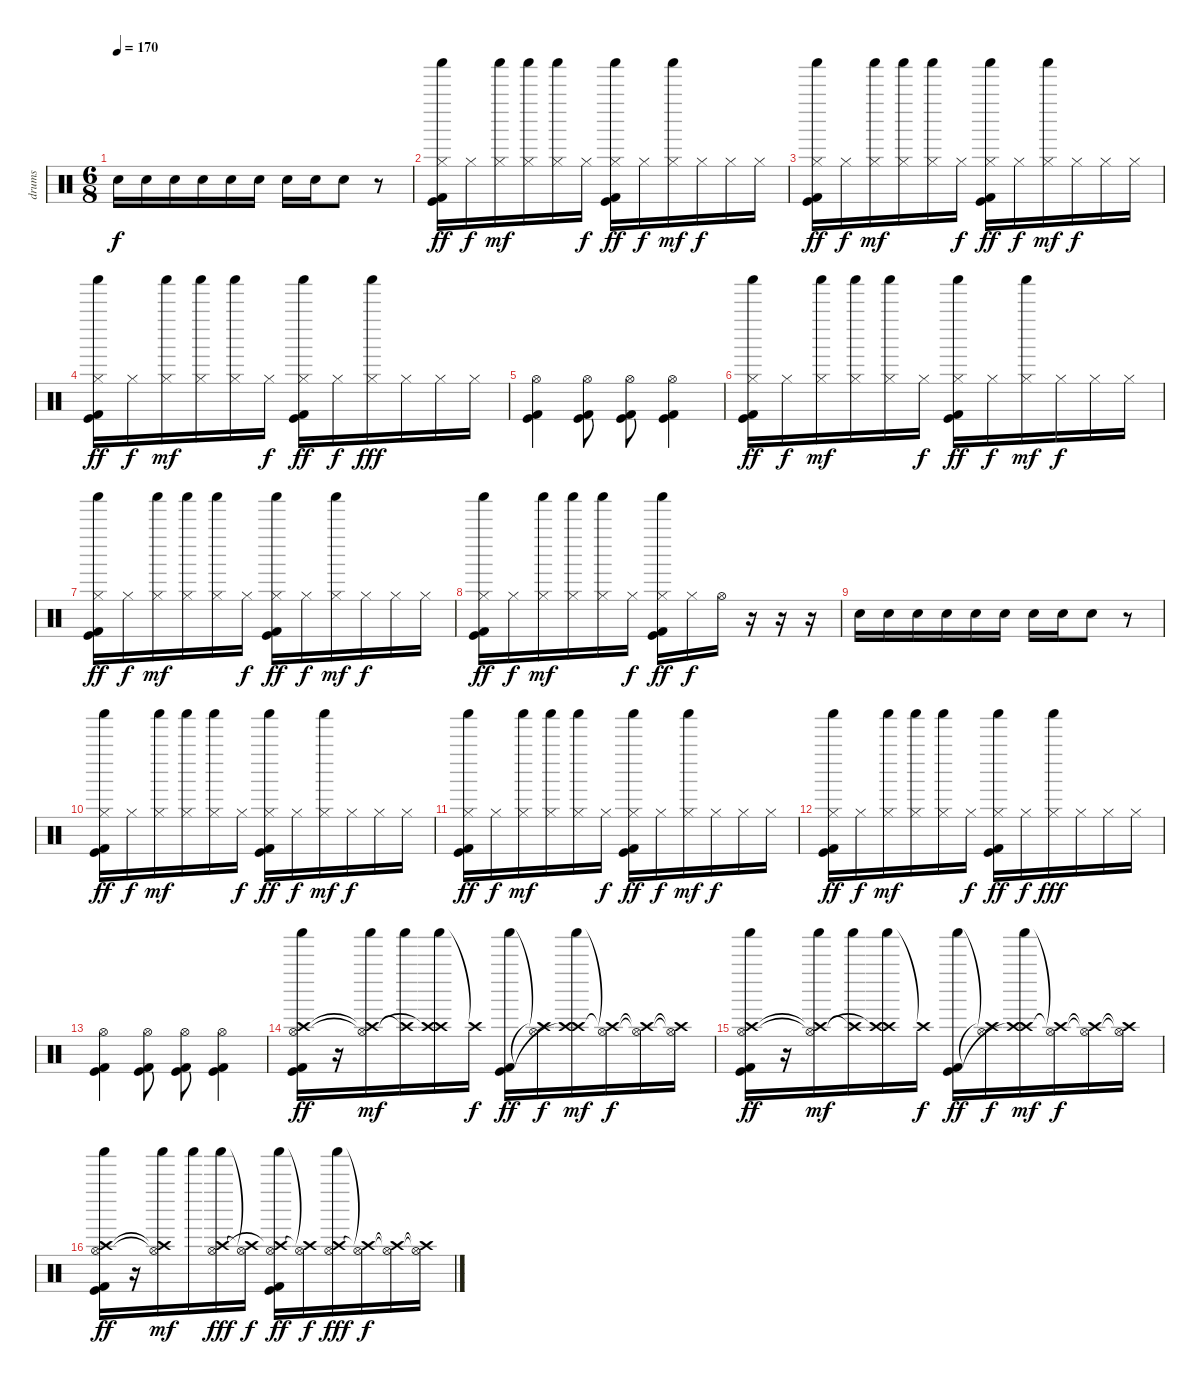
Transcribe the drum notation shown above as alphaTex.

\track ("drums " "drums ") {instrument percussion}
\staff {score}
\articulation defaults
\ts (6 8)
\tempo 170
\clef neutral
\ks c "Electric Snare (hit)".16{dy f} "Electric Snare (hit)".16 "Electric Snare (hit)".16 "Electric Snare (hit)".16 "Electric Snare (hit)".16 "Electric Snare (hit)".16 "Electric Snare (hit)".16 "Electric Snare (hit)".16 "Electric Snare (hit)".8
r.8 |
("Shaker (hit)" "Hi-Hat (closed)" "Kick (hit) 2" "Kick (hit)").16{dy ff} "Hi-Hat (closed)".16{dy f} ("Shaker (hit)" "Hi-Hat (closed)").16{dy mf} ("Shaker (hit)" "Hi-Hat (closed)").16 ("Shaker (hit)" "Hi-Hat (closed)").16 "Hi-Hat (closed)".16{dy f} ("Shaker (hit)" "Hi-Hat (closed)" "Kick (hit) 2" "Kick (hit)").16{dy ff} "Hi-Hat (closed)".16{dy f} ("Shaker (hit)" "Hi-Hat (closed)").16{dy mf} "Hi-Hat (closed)".16{dy f} "Hi-Hat (closed)".16 "Hi-Hat (closed)".16 |
("Shaker (hit)" "Hi-Hat (closed)" "Kick (hit) 2" "Kick (hit)").16{dy ff} "Hi-Hat (closed)".16{dy f} ("Shaker (hit)" "Hi-Hat (closed)").16{dy mf} ("Shaker (hit)" "Hi-Hat (closed)").16 ("Shaker (hit)" "Hi-Hat (closed)").16 "Hi-Hat (closed)".16{dy f} ("Shaker (hit)" "Hi-Hat (closed)" "Kick (hit) 2" "Kick (hit)").16{dy ff} "Hi-Hat (closed)".16{dy f} ("Shaker (hit)" "Hi-Hat (closed)").16{dy mf} "Hi-Hat (closed)".16{dy f} "Hi-Hat (closed)".16 "Hi-Hat (closed)".16 |
("Shaker (hit)" "Hi-Hat (closed)" "Kick (hit) 2" "Kick (hit)").16{dy ff} "Hi-Hat (closed)".16{dy f} ("Shaker (hit)" "Hi-Hat (closed)").16{dy mf} ("Shaker (hit)" "Hi-Hat (closed)").16 ("Shaker (hit)" "Hi-Hat (closed)").16 "Hi-Hat (closed)".16{dy f} ("Shaker (hit)" "Hi-Hat (closed)" "Kick (hit) 2" "Kick (hit)").16{dy ff} "Hi-Hat (closed)".16{dy f} ("Shaker (hit)" "Hi-Hat (closed)").16{dy fff} "Hi-Hat (closed)".16 "Hi-Hat (closed)".16 "Hi-Hat (closed)".16 |
("Hi-Hat (open)" "Kick (hit) 2" "Kick (hit)").4 ("Hi-Hat (open)" "Kick (hit) 2" "Kick (hit)").8 ("Hi-Hat (open)" "Kick (hit) 2" "Kick (hit)").8 ("Hi-Hat (open)" "Kick (hit) 2" "Kick (hit)").4 |
("Shaker (hit)" "Hi-Hat (closed)" "Kick (hit) 2" "Kick (hit)").16{dy ff} "Hi-Hat (closed)".16{dy f} ("Shaker (hit)" "Hi-Hat (closed)").16{dy mf} ("Shaker (hit)" "Hi-Hat (closed)").16 ("Shaker (hit)" "Hi-Hat (closed)").16 "Hi-Hat (closed)".16{dy f} ("Shaker (hit)" "Hi-Hat (closed)" "Kick (hit) 2" "Kick (hit)").16{dy ff} "Hi-Hat (closed)".16{dy f} ("Shaker (hit)" "Hi-Hat (closed)").16{dy mf} "Hi-Hat (closed)".16{dy f} "Hi-Hat (closed)".16 "Hi-Hat (closed)".16 |
("Shaker (hit)" "Hi-Hat (closed)" "Kick (hit) 2" "Kick (hit)").16{dy ff} "Hi-Hat (closed)".16{dy f} ("Shaker (hit)" "Hi-Hat (closed)").16{dy mf} ("Shaker (hit)" "Hi-Hat (closed)").16 ("Shaker (hit)" "Hi-Hat (closed)").16 "Hi-Hat (closed)".16{dy f} ("Shaker (hit)" "Hi-Hat (closed)" "Kick (hit) 2" "Kick (hit)").16{dy ff} "Hi-Hat (closed)".16{dy f} ("Shaker (hit)" "Hi-Hat (closed)").16{dy mf} "Hi-Hat (closed)".16{dy f} "Hi-Hat (closed)".16 "Hi-Hat (closed)".16 |
("Shaker (hit)" "Hi-Hat (closed)" "Kick (hit) 2" "Kick (hit)").16{dy ff} "Hi-Hat (closed)".16{dy f} ("Shaker (hit)" "Hi-Hat (closed)").16{dy mf} ("Shaker (hit)" "Hi-Hat (closed)").16 ("Shaker (hit)" "Hi-Hat (closed)").16 "Hi-Hat (closed)".16{dy f} ("Shaker (hit)" "Hi-Hat (closed)" "Kick (hit) 2" "Kick (hit)").16{dy ff} "Hi-Hat (closed)".16{dy f} "Hi-Hat (open)".16 r.16 r.16 r.16 |
"Electric Snare (hit)".16 "Electric Snare (hit)".16 "Electric Snare (hit)".16 "Electric Snare (hit)".16 "Electric Snare (hit)".16 "Electric Snare (hit)".16 "Electric Snare (hit)".16 "Electric Snare (hit)".16 "Electric Snare (hit)".8 r.8 |
("Shaker (hit)" "Hi-Hat (closed)" "Kick (hit) 2" "Kick (hit)").16{dy ff} "Hi-Hat (closed)".16{dy f} ("Shaker (hit)" "Hi-Hat (closed)").16{dy mf} ("Shaker (hit)" "Hi-Hat (closed)").16 ("Shaker (hit)" "Hi-Hat (closed)").16 "Hi-Hat (closed)".16{dy f} ("Shaker (hit)" "Hi-Hat (closed)" "Kick (hit) 2" "Kick (hit)").16{dy ff} "Hi-Hat (closed)".16{dy f} ("Shaker (hit)" "Hi-Hat (closed)").16{dy mf} "Hi-Hat (closed)".16{dy f} "Hi-Hat (closed)".16 "Hi-Hat (closed)".16 |
("Shaker (hit)" "Hi-Hat (closed)" "Kick (hit) 2" "Kick (hit)").16{dy ff} "Hi-Hat (closed)".16{dy f} ("Shaker (hit)" "Hi-Hat (closed)").16{dy mf} ("Shaker (hit)" "Hi-Hat (closed)").16 ("Shaker (hit)" "Hi-Hat (closed)").16 "Hi-Hat (closed)".16{dy f} ("Shaker (hit)" "Hi-Hat (closed)" "Kick (hit) 2" "Kick (hit)").16{dy ff} "Hi-Hat (closed)".16{dy f} ("Shaker (hit)" "Hi-Hat (closed)").16{dy mf} "Hi-Hat (closed)".16{dy f} "Hi-Hat (closed)".16 "Hi-Hat (closed)".16 |
("Shaker (hit)" "Hi-Hat (closed)" "Kick (hit) 2" "Kick (hit)").16{dy ff} "Hi-Hat (closed)".16{dy f} ("Shaker (hit)" "Hi-Hat (closed)").16{dy mf} ("Shaker (hit)" "Hi-Hat (closed)").16 ("Shaker (hit)" "Hi-Hat (closed)").16 "Hi-Hat (closed)".16{dy f} ("Shaker (hit)" "Hi-Hat (closed)" "Kick (hit) 2" "Kick (hit)").16{dy ff} "Hi-Hat (closed)".16{dy f} ("Shaker (hit)" "Hi-Hat (closed)").16{dy fff} "Hi-Hat (closed)".16 "Hi-Hat (closed)".16 "Hi-Hat (closed)".16 |
("Hi-Hat (open)" "Kick (hit) 2" "Kick (hit)").4 ("Hi-Hat (open)" "Kick (hit) 2" "Kick (hit)").8 ("Hi-Hat (open)" "Kick (hit) 2" "Kick (hit)").8 ("Hi-Hat (open)" "Kick (hit) 2" "Kick (hit)").4 |
("Shaker (hit)" "Hi-Hat (open)" "Crash high (hit)" "Kick (hit) 2" "Kick (hit)").16{dy ff} r.16 ("Shaker (hit)" "Hi-Hat (open)"{t} "Crash high (hit)"{t}).16{dy mf} ("Shaker (hit)" "Crash high (hit)"{t}).16 ("Shaker (hit)" "Crash high (hit)" "Crash high (hit)"{t}).16 "Crash high (hit)"{t}.16{dy f} ("Shaker (hit)" "Kick (hit) 2" "Kick (hit)").16{dy ff} ("Hi-Hat (open)"{t} "Crash high (hit)"{t}).16{dy f} ("Shaker (hit)" "Crash high (hit)" "Crash high (hit)"{t}).16{dy mf} ("Hi-Hat (open)"{t} "Crash high (hit)"{t}).16{dy f} ("Hi-Hat (open)"{t} "Crash high (hit)"{t}).16 ("Hi-Hat (open)"{t} "Crash high (hit)"{t}).16 |
("Shaker (hit)" "Hi-Hat (open)" "Crash high (hit)" "Kick (hit) 2" "Kick (hit)").16{dy ff} r.16 ("Shaker (hit)" "Hi-Hat (open)"{t} "Crash high (hit)"{t}).16{dy mf} ("Shaker (hit)" "Crash high (hit)"{t}).16 ("Shaker (hit)" "Crash high (hit)" "Crash high (hit)"{t}).16 "Crash high (hit)"{t}.16{dy f} ("Shaker (hit)" "Kick (hit) 2" "Kick (hit)").16{dy ff} ("Hi-Hat (open)"{t} "Crash high (hit)"{t}).16{dy f} ("Shaker (hit)" "Crash high (hit)" "Crash high (hit)"{t}).16{dy mf} ("Hi-Hat (open)"{t} "Crash high (hit)"{t}).16{dy f} ("Hi-Hat (open)"{t} "Crash high (hit)"{t}).16 ("Hi-Hat (open)"{t} "Crash high (hit)"{t}).16 |
("Shaker (hit)" "Hi-Hat (open)" "Crash high (hit)" "Kick (hit) 2" "Kick (hit)").16{dy ff} r.16 ("Shaker (hit)" "Hi-Hat (open)"{t} "Crash high (hit)"{t}).16{dy mf} "Shaker (hit)".16 ("Shaker (hit)" "Hi-Hat (open)" "Crash high (hit)").16{dy fff} ("Hi-Hat (open)"{t} "Crash high (hit)"{t}).16{dy f} ("Shaker (hit)" "Hi-Hat (open)" "Crash high (hit)"{t} "Kick (hit) 2" "Kick (hit)").16{dy ff} ("Hi-Hat (open)"{t} "Crash high (hit)"{t}).16{dy f} ("Shaker (hit)" "Hi-Hat (open)" "Crash high (hit)").16{dy fff} ("Hi-Hat (open)"{t} "Crash high (hit)"{t}).16{dy f} ("Hi-Hat (open)"{t} "Crash high (hit)"{t}).16 ("Hi-Hat (open)"{t} "Crash high (hit)"{t}).16
